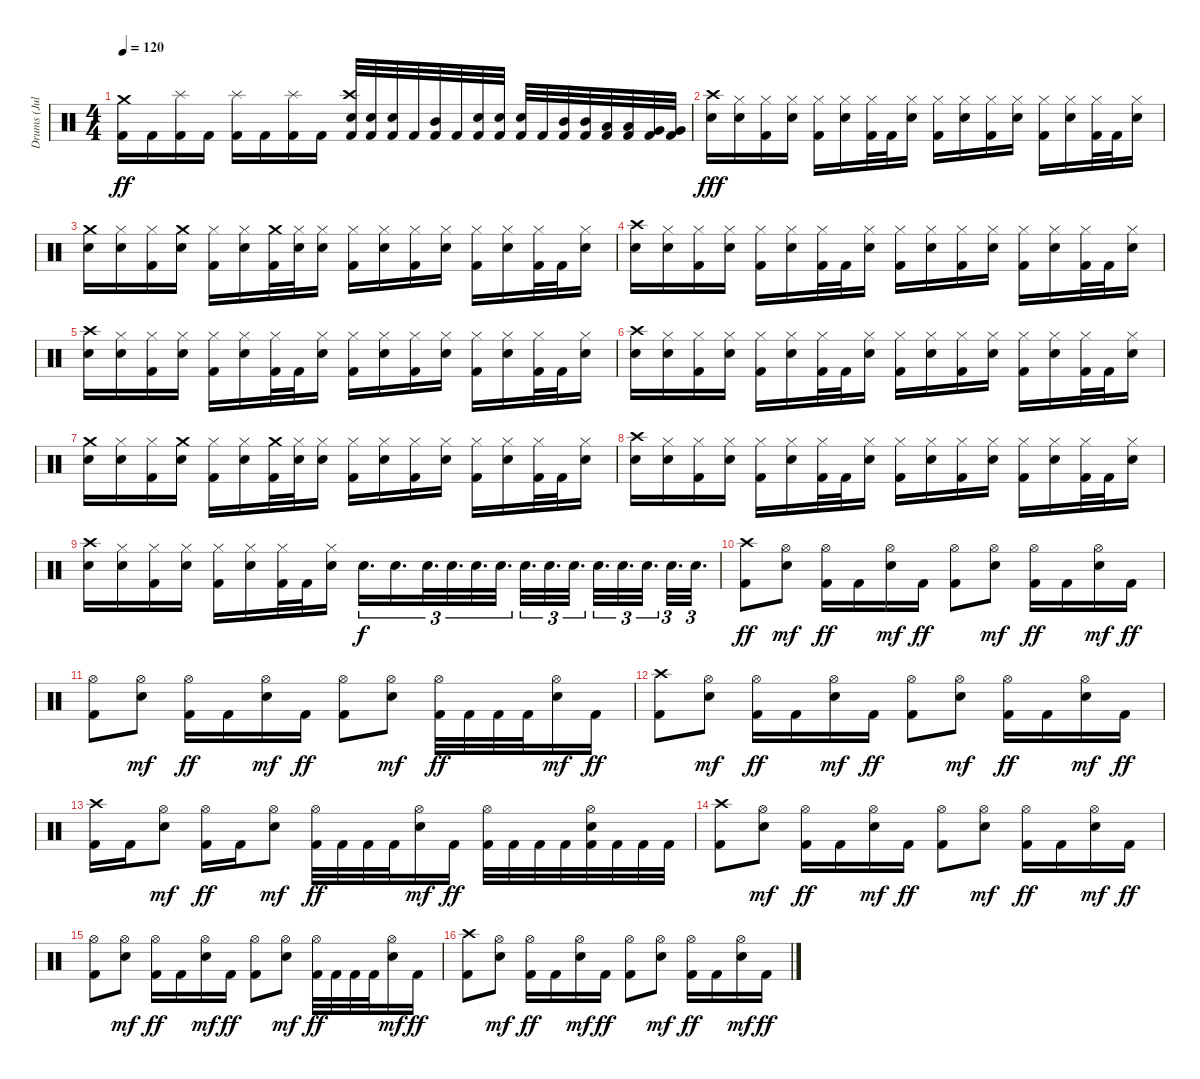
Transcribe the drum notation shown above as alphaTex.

\track ("Drums (Julian Del Rosario)" "Drums (Jul") {instrument percussion}
\staff {score}
\articulation defaults
\ts (4 4)
\tempo 120
\clef neutral
\ks c
("Crash medium (hit)" "Kick (hit) 2").16{dy ff} "Kick (hit) 2".16 ("Splash (hit)" "Kick (hit) 2").16 "Kick (hit) 2".16 ("Splash (hit)" "Kick (hit) 2").16 "Kick (hit) 2".16 ("Splash (hit)" "Kick (hit) 2").16 "Kick (hit) 2".16 ("Crash high (hit)" "Snare (hit) 2" "Kick (hit) 2").32 ("Snare (hit) 2" "Kick (hit) 2").32 ("Snare (hit) 2" "Kick (hit) 2").32 "Kick (hit) 2".32 ("Mid Tom (hit)" "Kick (hit) 2").32 "Kick (hit) 2".32 ("Snare (hit) 2" "Kick (hit) 2").32 ("Snare (hit) 2" "Kick (hit) 2").32 ("Snare (hit) 2" "Kick (hit) 2").32 "Kick (hit) 2".32 ("Mid Tom (hit)" "Kick (hit) 2").32 ("Mid Tom (hit)" "Kick (hit) 2").32 ("Low Tom (hit)" "Kick (hit) 2").32 ("Low Tom (hit)" "Kick (hit) 2").32 ("Very Low Tom (hit)" "Kick (hit) 2").32 ("Very Low Tom (hit)" "Kick (hit) 2").32 |
("Crash high (hit)" "Snare (hit) 2").16{dy fff} ("Hi-Hat (closed)" "Snare (hit) 2").16 ("Hi-Hat (closed)" "Kick (hit) 2").16 ("Hi-Hat (closed)" "Snare (hit) 2").16 ("Hi-Hat (closed)" "Kick (hit) 2").16 ("Hi-Hat (closed)" "Snare (hit) 2").16 ("Hi-Hat (closed)" "Kick (hit) 2").32 "Kick (hit) 2".32 ("Hi-Hat (closed)" "Snare (hit) 2").16 ("Hi-Hat (closed)" "Kick (hit) 2").16 ("Hi-Hat (closed)" "Snare (hit) 2").16 ("Hi-Hat (closed)" "Kick (hit) 2").16 ("Hi-Hat (closed)" "Snare (hit) 2").16 ("Hi-Hat (closed)" "Kick (hit) 2").16 ("Hi-Hat (closed)" "Snare (hit) 2").16 ("Hi-Hat (closed)" "Kick (hit) 2").32 "Kick (hit) 2".32 ("Hi-Hat (closed)" "Snare (hit) 2").16 |
("Crash medium (hit)" "Snare (hit) 2").16 ("Hi-Hat (closed)" "Snare (hit) 2").16 ("Hi-Hat (closed)" "Kick (hit) 2").16 ("Crash medium (hit)" "Snare (hit) 2").16 ("Hi-Hat (closed)" "Kick (hit) 2").16 ("Hi-Hat (closed)" "Snare (hit) 2").16 ("Crash medium (hit)" "Kick (hit) 2").32 ("Hi-Hat (closed)" "Snare (hit) 2").32 ("Hi-Hat (closed)" "Snare (hit) 2").16 ("Hi-Hat (closed)" "Kick (hit) 2").16 ("Hi-Hat (closed)" "Snare (hit) 2").16 ("Hi-Hat (closed)" "Kick (hit) 2").16 ("Hi-Hat (closed)" "Snare (hit) 2").16 ("Hi-Hat (closed)" "Kick (hit) 2").16 ("Hi-Hat (closed)" "Snare (hit) 2").16 ("Hi-Hat (closed)" "Kick (hit) 2").32 "Kick (hit) 2".32 ("Hi-Hat (closed)" "Snare (hit) 2").16 |
("Crash high (hit)" "Snare (hit) 2").16 ("Hi-Hat (closed)" "Snare (hit) 2").16 ("Hi-Hat (closed)" "Kick (hit) 2").16 ("Hi-Hat (closed)" "Snare (hit) 2").16 ("Hi-Hat (closed)" "Kick (hit) 2").16 ("Hi-Hat (closed)" "Snare (hit) 2").16 ("Hi-Hat (closed)" "Kick (hit) 2").32 "Kick (hit) 2".32 ("Hi-Hat (closed)" "Snare (hit) 2").16 ("Hi-Hat (closed)" "Kick (hit) 2").16 ("Hi-Hat (closed)" "Snare (hit) 2").16 ("Hi-Hat (closed)" "Kick (hit) 2").16 ("Hi-Hat (closed)" "Snare (hit) 2").16 ("Hi-Hat (closed)" "Kick (hit) 2").16 ("Hi-Hat (closed)" "Snare (hit) 2").16 ("Hi-Hat (closed)" "Kick (hit) 2").32 "Kick (hit) 2".32 ("Hi-Hat (closed)" "Snare (hit) 2").16 |
("Crash high (hit)" "Snare (hit) 2").16 ("Hi-Hat (closed)" "Snare (hit) 2").16 ("Hi-Hat (closed)" "Kick (hit) 2").16 ("Hi-Hat (closed)" "Snare (hit) 2").16 ("Hi-Hat (closed)" "Kick (hit) 2").16 ("Hi-Hat (closed)" "Snare (hit) 2").16 ("Hi-Hat (closed)" "Kick (hit) 2").32 "Kick (hit) 2".32 ("Hi-Hat (closed)" "Snare (hit) 2").16 ("Hi-Hat (closed)" "Kick (hit) 2").16 ("Hi-Hat (closed)" "Snare (hit) 2").16 ("Hi-Hat (closed)" "Kick (hit) 2").16 ("Hi-Hat (closed)" "Snare (hit) 2").16 ("Hi-Hat (closed)" "Kick (hit) 2").16 ("Hi-Hat (closed)" "Snare (hit) 2").16 ("Hi-Hat (closed)" "Kick (hit) 2").32 "Kick (hit) 2".32 ("Hi-Hat (closed)" "Snare (hit) 2").16 |
("Crash high (hit)" "Snare (hit) 2").16 ("Hi-Hat (closed)" "Snare (hit) 2").16 ("Hi-Hat (closed)" "Kick (hit) 2").16 ("Hi-Hat (closed)" "Snare (hit) 2").16 ("Hi-Hat (closed)" "Kick (hit) 2").16 ("Hi-Hat (closed)" "Snare (hit) 2").16 ("Hi-Hat (closed)" "Kick (hit) 2").32 "Kick (hit) 2".32 ("Hi-Hat (closed)" "Snare (hit) 2").16 ("Hi-Hat (closed)" "Kick (hit) 2").16 ("Hi-Hat (closed)" "Snare (hit) 2").16 ("Hi-Hat (closed)" "Kick (hit) 2").16 ("Hi-Hat (closed)" "Snare (hit) 2").16 ("Hi-Hat (closed)" "Kick (hit) 2").16 ("Hi-Hat (closed)" "Snare (hit) 2").16 ("Hi-Hat (closed)" "Kick (hit) 2").32 "Kick (hit) 2".32 ("Hi-Hat (closed)" "Snare (hit) 2").16 |
("Crash medium (hit)" "Snare (hit) 2").16 ("Hi-Hat (closed)" "Snare (hit) 2").16 ("Hi-Hat (closed)" "Kick (hit) 2").16 ("Crash medium (hit)" "Snare (hit) 2").16 ("Hi-Hat (closed)" "Kick (hit) 2").16 ("Hi-Hat (closed)" "Snare (hit) 2").16 ("Crash medium (hit)" "Kick (hit) 2").32 ("Hi-Hat (closed)" "Snare (hit) 2").32 ("Hi-Hat (closed)" "Snare (hit) 2").16 ("Hi-Hat (closed)" "Kick (hit) 2").16 ("Hi-Hat (closed)" "Snare (hit) 2").16 ("Hi-Hat (closed)" "Kick (hit) 2").16 ("Hi-Hat (closed)" "Snare (hit) 2").16 ("Hi-Hat (closed)" "Kick (hit) 2").16 ("Hi-Hat (closed)" "Snare (hit) 2").16 ("Hi-Hat (closed)" "Kick (hit) 2").32 "Kick (hit) 2".32 ("Hi-Hat (closed)" "Snare (hit) 2").16 |
("Crash high (hit)" "Snare (hit) 2").16 ("Hi-Hat (closed)" "Snare (hit) 2").16 ("Hi-Hat (closed)" "Kick (hit) 2").16 ("Hi-Hat (closed)" "Snare (hit) 2").16 ("Hi-Hat (closed)" "Kick (hit) 2").16 ("Hi-Hat (closed)" "Snare (hit) 2").16 ("Hi-Hat (closed)" "Kick (hit) 2").32 "Kick (hit) 2".32 ("Hi-Hat (closed)" "Snare (hit) 2").16 ("Hi-Hat (closed)" "Kick (hit) 2").16 ("Hi-Hat (closed)" "Snare (hit) 2").16 ("Hi-Hat (closed)" "Kick (hit) 2").16 ("Hi-Hat (closed)" "Snare (hit) 2").16 ("Hi-Hat (closed)" "Kick (hit) 2").16 ("Hi-Hat (closed)" "Snare (hit) 2").16 ("Hi-Hat (closed)" "Kick (hit) 2").32 "Kick (hit) 2".32 ("Hi-Hat (closed)" "Snare (hit) 2").16 |
("Crash high (hit)" "Snare (hit) 2").16 ("Hi-Hat (closed)" "Snare (hit) 2").16 ("Hi-Hat (closed)" "Kick (hit) 2").16 ("Hi-Hat (closed)" "Snare (hit) 2").16 ("Hi-Hat (closed)" "Kick (hit) 2").16 ("Hi-Hat (closed)" "Snare (hit) 2").16 ("Hi-Hat (closed)" "Kick (hit) 2").32 "Kick (hit) 2".32 ("Hi-Hat (closed)" "Snare (hit) 2").16 "Snare (hit) 2".16{d tu (3 2) dy f} "Snare (hit) 2".16{d tu (3 2)} "Snare (hit) 2".32{d tu (3 2)} "Snare (hit) 2".32{d tu (3 2)} "Snare (hit) 2".32{d tu (3 2)} "Snare (hit) 2".32{d tu (3 2)} "Snare (hit) 2".32{d tu (3 2)} "Snare (hit) 2".32{d tu (3 2)} "Snare (hit) 2".32{d tu (3 2)} "Snare (hit) 2".32{d tu (3 2)} "Snare (hit) 2".32{d tu (3 2)} "Snare (hit) 2".32{d tu (3 2)} "Snare (hit) 2".32{d tu (3 2)} "Snare (hit) 2".32{d tu (3 2)} |
("Crash high (hit)" "Kick (hit) 2").8{dy ff} ("Hi-Hat (open)" "Snare (hit) 2").8{dy mf} ("Hi-Hat (open)" "Kick (hit) 2").16{dy ff} "Kick (hit) 2".16 ("Hi-Hat (open)" "Snare (hit) 2").16{dy mf} "Kick (hit) 2".16{dy ff} ("Hi-Hat (open)" "Kick (hit) 2").8 ("Hi-Hat (open)" "Snare (hit) 2").8{dy mf} ("Hi-Hat (open)" "Kick (hit) 2").16{dy ff} "Kick (hit) 2".16 ("Hi-Hat (open)" "Snare (hit) 2").16{dy mf} "Kick (hit) 2".16{dy ff} |
("Hi-Hat (open)" "Kick (hit) 2").8 ("Hi-Hat (open)" "Snare (hit) 2").8{dy mf} ("Hi-Hat (open)" "Kick (hit) 2").16{dy ff} "Kick (hit) 2".16 ("Hi-Hat (open)" "Snare (hit) 2").16{dy mf} "Kick (hit) 2".16{dy ff} ("Hi-Hat (open)" "Kick (hit) 2").8 ("Hi-Hat (open)" "Snare (hit) 2").8{dy mf} ("Hi-Hat (open)" "Kick (hit) 2").32{dy ff} "Kick (hit) 2".32 "Kick (hit) 2".32 "Kick (hit) 2".32 ("Hi-Hat (open)" "Snare (hit) 2").16{dy mf} "Kick (hit) 2".16{dy ff} |
("Crash high (hit)" "Kick (hit) 2").8 ("Hi-Hat (open)" "Snare (hit) 2").8{dy mf} ("Hi-Hat (open)" "Kick (hit) 2").16{dy ff} "Kick (hit) 2".16 ("Hi-Hat (open)" "Snare (hit) 2").16{dy mf} "Kick (hit) 2".16{dy ff} ("Hi-Hat (open)" "Kick (hit) 2").8 ("Hi-Hat (open)" "Snare (hit) 2").8{dy mf} ("Hi-Hat (open)" "Kick (hit) 2").16{dy ff} "Kick (hit) 2".16 ("Hi-Hat (open)" "Snare (hit) 2").16{dy mf} "Kick (hit) 2".16{dy ff} |
("Crash high (hit)" "Kick (hit) 2").16 "Kick (hit) 2".16 ("Hi-Hat (open)" "Snare (hit) 2").8{dy mf} ("Hi-Hat (open)" "Kick (hit) 2").16{dy ff} "Kick (hit) 2".16 ("Hi-Hat (open)" "Snare (hit) 2").8{dy mf} ("Hi-Hat (open)" "Kick (hit) 2").32{dy ff} "Kick (hit) 2".32 "Kick (hit) 2".32 "Kick (hit) 2".32 ("Hi-Hat (open)" "Snare (hit) 2").16{dy mf} "Kick (hit) 2".16{dy ff} ("Hi-Hat (open)" "Kick (hit) 2").32 "Kick (hit) 2".32 "Kick (hit) 2".32 "Kick (hit) 2".32 ("Hi-Hat (open)" "Snare (hit) 2" "Kick (hit) 2").32 "Kick (hit) 2".32 "Kick (hit) 2".32 "Kick (hit) 2".32 |
("Crash high (hit)" "Kick (hit) 2").8 ("Hi-Hat (open)" "Snare (hit) 2").8{dy mf} ("Hi-Hat (open)" "Kick (hit) 2").16{dy ff} "Kick (hit) 2".16 ("Hi-Hat (open)" "Snare (hit) 2").16{dy mf} "Kick (hit) 2".16{dy ff} ("Hi-Hat (open)" "Kick (hit) 2").8 ("Hi-Hat (open)" "Snare (hit) 2").8{dy mf} ("Hi-Hat (open)" "Kick (hit) 2").16{dy ff} "Kick (hit) 2".16 ("Hi-Hat (open)" "Snare (hit) 2").16{dy mf} "Kick (hit) 2".16{dy ff} |
("Hi-Hat (open)" "Kick (hit) 2").8 ("Hi-Hat (open)" "Snare (hit) 2").8{dy mf} ("Hi-Hat (open)" "Kick (hit) 2").16{dy ff} "Kick (hit) 2".16 ("Hi-Hat (open)" "Snare (hit) 2").16{dy mf} "Kick (hit) 2".16{dy ff} ("Hi-Hat (open)" "Kick (hit) 2").8 ("Hi-Hat (open)" "Snare (hit) 2").8{dy mf} ("Hi-Hat (open)" "Kick (hit) 2").32{dy ff} "Kick (hit) 2".32 "Kick (hit) 2".32 "Kick (hit) 2".32 ("Hi-Hat (open)" "Snare (hit) 2").16{dy mf} "Kick (hit) 2".16{dy ff} |
("Crash high (hit)" "Kick (hit) 2").8 ("Hi-Hat (open)" "Snare (hit) 2").8{dy mf} ("Hi-Hat (open)" "Kick (hit) 2").16{dy ff} "Kick (hit) 2".16 ("Hi-Hat (open)" "Snare (hit) 2").16{dy mf} "Kick (hit) 2".16{dy ff} ("Hi-Hat (open)" "Kick (hit) 2").8 ("Hi-Hat (open)" "Snare (hit) 2").8{dy mf} ("Hi-Hat (open)" "Kick (hit) 2").16{dy ff} "Kick (hit) 2".16 ("Hi-Hat (open)" "Snare (hit) 2").16{dy mf} "Kick (hit) 2".16{dy ff}
